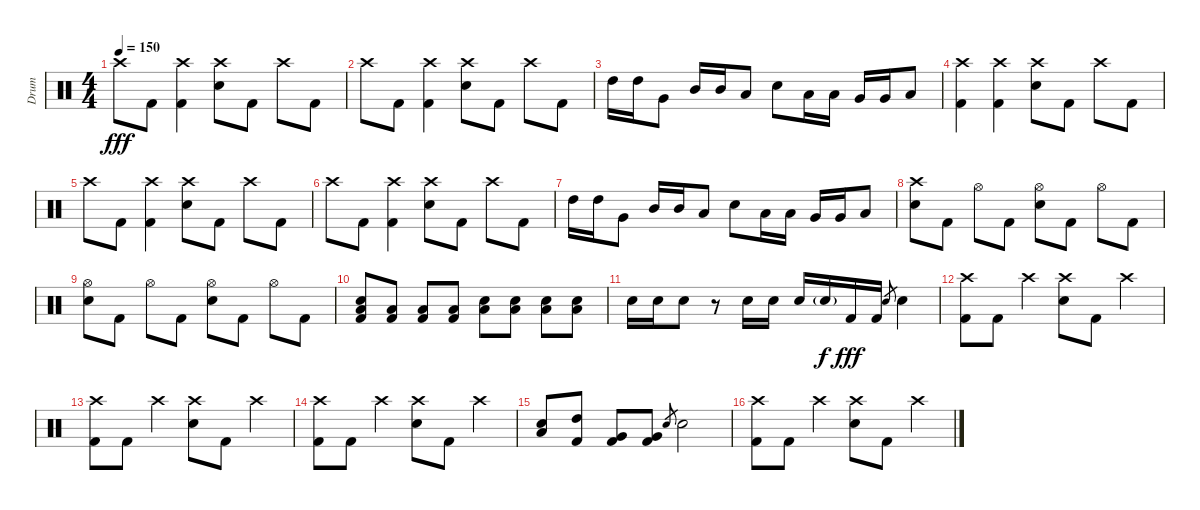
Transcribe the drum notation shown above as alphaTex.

\track ("Drum" "Drum") {instrument percussion}
\staff {score}
\articulation defaults
\ts (4 4)
\tempo 150
\clef neutral
\ks c "Crash high (hit)".8{dy fff} "Kick (hit) 2".8
("Crash high (hit)" "Kick (hit) 2").4 ("Crash high (hit)" "Electric Snare (hit)").8 "Kick (hit) 2".8 "Crash high (hit)".8 "Kick (hit) 2".8 |
"Crash high (hit)".8 "Kick (hit) 2".8 ("Crash high (hit)" "Kick (hit) 2").4 ("Crash high (hit)" "Electric Snare (hit)").8 "Kick (hit) 2".8 "Crash high (hit)".8 "Kick (hit) 2".8 |
"High Tom (hit)".16 "High Tom (hit)".16 "Very Low Tom (hit)".8 "Mid Tom (hit)".16 "Mid Tom (hit)".16 "Low Tom (hit)".8 "Electric Snare (hit)".8 "Low Tom (hit)".16 "Low Tom (hit)".16 "Very Low Tom (hit)".16 "Very Low Tom (hit)".16 "Low Floor Tom (hit)".8 |
("Crash high (hit)" "Kick (hit) 2").4 ("Crash high (hit)" "Kick (hit) 2").4 ("Crash high (hit)" "Electric Snare (hit)").8 "Kick (hit) 2".8 "Crash high (hit)".8 "Kick (hit) 2".8 |
"Crash high (hit)".8 "Kick (hit) 2".8 ("Crash high (hit)" "Kick (hit) 2").4 ("Crash high (hit)" "Electric Snare (hit)").8 "Kick (hit) 2".8 "Crash high (hit)".8 "Kick (hit) 2".8 |
"Crash high (hit)".8 "Kick (hit) 2".8 ("Crash high (hit)" "Kick (hit) 2").4 ("Crash high (hit)" "Electric Snare (hit)").8 "Kick (hit) 2".8 "Crash high (hit)".8 "Kick (hit) 2".8 |
"High Tom (hit)".16 "High Tom (hit)".16 "Very Low Tom (hit)".8 "Mid Tom (hit)".16 "Mid Tom (hit)".16 "Low Tom (hit)".8 "Electric Snare (hit)".8 "Low Tom (hit)".16 "Low Tom (hit)".16 "Very Low Tom (hit)".16 "Very Low Tom (hit)".16 "Low Floor Tom (hit)".8 |
("Crash high (hit)" "Electric Snare (hit)").8 "Kick (hit) 2".8 "Hi-Hat (open)".8 "Kick (hit) 2".8 ("Hi-Hat (open)" "Electric Snare (hit)").8 "Kick (hit) 2".8 "Hi-Hat (open)".8 "Kick (hit) 2".8 |
("Hi-Hat (open)" "Electric Snare (hit)").8 "Kick (hit) 2".8 "Hi-Hat (open)".8 "Kick (hit) 2".8 ("Hi-Hat (open)" "Electric Snare (hit)").8 "Kick (hit) 2".8 "Hi-Hat (open)".8 "Kick (hit) 2".8 |
("Electric Snare (hit)" "Low Floor Tom (hit)" "Kick (hit) 2").8 ("Low Floor Tom (hit)" "Kick (hit) 2").8 ("Low Floor Tom (hit)" "Kick (hit) 2").8 ("Low Floor Tom (hit)" "Kick (hit) 2").8 ("Electric Snare (hit)" "Low Floor Tom (hit)").8 ("Electric Snare (hit)" "Low Floor Tom (hit)").8 ("Electric Snare (hit)" "Low Floor Tom (hit)").8 ("Electric Snare (hit)" "Low Floor Tom (hit)").8 |
"Electric Snare (hit)".16 "Electric Snare (hit)".16 "Electric Snare (hit)".8 r.8 "Electric Snare (hit)".16 "Electric Snare (hit)".16 "Electric Snare (hit)".16 "Electric Snare (hit)"{g}.16{dy f} "Kick (hit) 2".16{dy fff} "Kick (hit) 2".16 "Electric Snare (hit)".8{gr} "Electric Snare (hit)".4 |
("Crash high (hit)" "Kick (hit) 2").8 "Kick (hit) 2".8 "Crash high (hit)".4 ("Crash high (hit)" "Electric Snare (hit)").8 "Kick (hit) 2".8 "Crash high (hit)".4 |
("Crash high (hit)" "Kick (hit) 2").8 "Kick (hit) 2".8 "Crash high (hit)".4 ("Crash high (hit)" "Electric Snare (hit)").8 "Kick (hit) 2".8 "Crash high (hit)".4 |
("Crash high (hit)" "Kick (hit) 2").8 "Kick (hit) 2".8 "Crash high (hit)".4 ("Crash high (hit)" "Electric Snare (hit)").8 "Kick (hit) 2".8 "Crash high (hit)".4 |
("Electric Snare (hit)" "Low Floor Tom (hit)").8 ("High Tom (hit)" "Kick (hit) 2").8 ("Very Low Tom (hit)" "Kick (hit) 2").8 ("Very Low Tom (hit)" "Kick (hit) 2").8 "Electric Snare (hit)".8{gr} "Electric Snare (hit)".2 |
("Crash high (hit)" "Kick (hit) 2").8 "Kick (hit) 2".8 "Crash high (hit)".4 ("Crash high (hit)" "Electric Snare (hit)").8 "Kick (hit) 2".8 "Crash high (hit)".4
